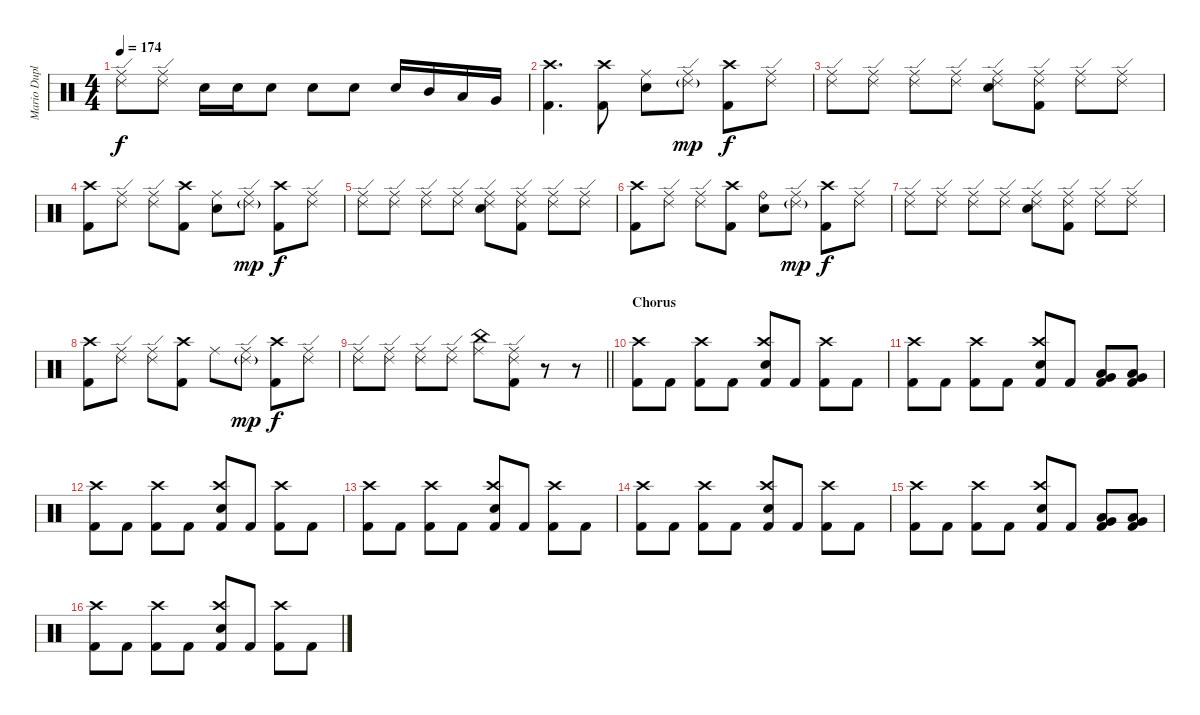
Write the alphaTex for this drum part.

\track ("Mario Duplantier - DRUMS" "Mario Dupl") {instrument percussion}
\staff {score}
\articulation defaults
\ts (4 4)
\tempo 174
\clef neutral
\ks c
("Ride (middle)" "Ride (edge) 2").8{dy f} ("Ride (middle)" "Ride (edge) 2").8 "Electric Snare (hit)".16 "Electric Snare (hit)".16 "Electric Snare (hit)".8 "Electric Snare (hit)".8 "Electric Snare (hit)".8 "Electric Snare (hit)".16 "Mid Tom (hit)".16 "Low Tom (hit)".16 "Very Low Tom (hit)".16 |
("Crash high (hit)" "Kick (hit) 2").4{d} ("Crash high (hit)" "Kick (hit) 2").8 ("Ride (middle)" "Electric Snare (hit)").8 ("Ride (middle)" "Ride (edge) 2"{g}).8{dy mp} ("Crash high (hit)" "Kick (hit) 2").8{dy f} ("Ride (middle)" "Ride (edge) 2").8 |
("Ride (middle)" "Ride (edge) 2").8 ("Ride (middle)" "Ride (edge) 2").8 ("Ride (middle)" "Ride (edge) 2").8 ("Ride (middle)" "Ride (edge) 2").8 ("Ride (middle)" "Ride (edge) 2" "Electric Snare (hit)").8 ("Ride (middle)" "Ride (edge) 2" "Kick (hit) 2").8 ("Ride (middle)" "Ride (edge) 2").8 ("Ride (middle)" "Ride (edge) 2").8 |
("Crash high (hit)" "Kick (hit) 2").8 ("Ride (middle)" "Ride (edge) 2").8 ("Ride (middle)" "Ride (edge) 2").8 ("Crash high (hit)" "Kick (hit) 2").8 ("Ride (middle)" "Electric Snare (hit)").8 ("Ride (middle)" "Ride (edge) 2"{g}).8{dy mp} ("Crash high (hit)" "Kick (hit) 2").8{dy f} ("Ride (middle)" "Ride (edge) 2").8 |
("Ride (middle)" "Ride (edge) 2").8 ("Ride (middle)" "Ride (edge) 2").8 ("Ride (middle)" "Ride (edge) 2").8 ("Ride (middle)" "Ride (edge) 2").8 ("Ride (middle)" "Ride (edge) 2" "Electric Snare (hit)").8 ("Ride (middle)" "Ride (edge) 2" "Kick (hit) 2").8 ("Ride (middle)" "Ride (edge) 2").8 ("Ride (middle)" "Ride (edge) 2").8 |
("Crash high (hit)" "Kick (hit) 2").8 ("Ride (middle)" "Ride (edge) 2").8 ("Ride (middle)" "Ride (edge) 2").8 ("Crash high (hit)" "Kick (hit) 2").8 ("Ride (bell)" "Electric Snare (hit)").8 ("Ride (middle)" "Ride (edge) 2"{g}).8{dy mp} ("Crash high (hit)" "Kick (hit) 2").8{dy f} ("Ride (middle)" "Ride (edge) 2").8 |
("Ride (middle)" "Ride (edge) 2").8 ("Ride (middle)" "Ride (edge) 2").8 ("Ride (middle)" "Ride (edge) 2").8 ("Ride (middle)" "Ride (edge) 2").8 ("Ride (middle)" "Ride (edge) 2" "Electric Snare (hit)").8 ("Ride (middle)" "Ride (edge) 2" "Kick (hit) 2").8 ("Ride (middle)" "Ride (edge) 2").8 ("Ride (middle)" "Ride (edge) 2").8 |
("Crash high (hit)" "Kick (hit) 2").8 ("Ride (middle)" "Ride (edge) 2").8 ("Ride (middle)" "Ride (edge) 2").8 ("Crash high (hit)" "Kick (hit) 2").8 "Ride (middle)".8 ("Ride (middle)" "Ride (edge) 2"{g}).8{dy mp} ("Crash high (hit)" "Kick (hit) 2").8{dy f} ("Ride (middle)" "Ride (edge) 2").8 |
\barLineRight lightlight
("Ride (middle)" "Ride (edge) 2").8 ("Ride (middle)" "Ride (edge) 2").8 ("Ride (middle)" "Ride (edge) 2").8 ("Ride (middle)" "Ride (edge) 2").8 ("Ride (middle)" "China (hit)").8 ("Ride (middle)" "Ride (edge) 2" "Kick (hit) 2").8 r.8 r.8 |
\section ("" "Chorus")
("Crash high (hit)" "Kick (hit) 2").8 "Kick (hit) 2".8 ("Crash high (hit)" "Kick (hit) 2").8 "Kick (hit) 2".8 ("Crash high (hit)" "Electric Snare (hit)" "Kick (hit) 2").8 "Kick (hit) 2".8 ("Crash high (hit)" "Kick (hit) 2").8 "Kick (hit) 2".8 |
("Crash high (hit)" "Kick (hit) 2").8 "Kick (hit) 2".8 ("Crash high (hit)" "Kick (hit) 2").8 "Kick (hit) 2".8 ("Crash high (hit)" "Electric Snare (hit)" "Kick (hit) 2").8 "Kick (hit) 2".8 ("Low Tom (hit)" "Very Low Tom (hit)" "Kick (hit) 2").8 ("Low Floor Tom (hit)" "Very Low Tom (hit)" "Kick (hit) 2").8 |
("Crash high (hit)" "Kick (hit) 2").8 "Kick (hit) 2".8 ("Crash high (hit)" "Kick (hit) 2").8 "Kick (hit) 2".8 ("Crash high (hit)" "Electric Snare (hit)" "Kick (hit) 2").8 "Kick (hit) 2".8 ("Crash high (hit)" "Kick (hit) 2").8 "Kick (hit) 2".8 |
("Crash high (hit)" "Kick (hit) 2").8 "Kick (hit) 2".8 ("Crash high (hit)" "Kick (hit) 2").8 "Kick (hit) 2".8 ("Crash high (hit)" "Electric Snare (hit)" "Kick (hit) 2").8 "Kick (hit) 2".8 ("Crash high (hit)" "Kick (hit) 2").8 "Kick (hit) 2".8 |
("Crash high (hit)" "Kick (hit) 2").8 "Kick (hit) 2".8 ("Crash high (hit)" "Kick (hit) 2").8 "Kick (hit) 2".8 ("Crash high (hit)" "Electric Snare (hit)" "Kick (hit) 2").8 "Kick (hit) 2".8 ("Crash high (hit)" "Kick (hit) 2").8 "Kick (hit) 2".8 |
("Crash high (hit)" "Kick (hit) 2").8 "Kick (hit) 2".8 ("Crash high (hit)" "Kick (hit) 2").8 "Kick (hit) 2".8 ("Crash high (hit)" "Electric Snare (hit)" "Kick (hit) 2").8 "Kick (hit) 2".8 ("Low Tom (hit)" "Very Low Tom (hit)" "Kick (hit) 2").8 ("Low Floor Tom (hit)" "Very Low Tom (hit)" "Kick (hit) 2").8 |
("Crash high (hit)" "Kick (hit) 2").8 "Kick (hit) 2".8 ("Crash high (hit)" "Kick (hit) 2").8 "Kick (hit) 2".8 ("Crash high (hit)" "Electric Snare (hit)" "Kick (hit) 2").8 "Kick (hit) 2".8 ("Crash high (hit)" "Kick (hit) 2").8 "Kick (hit) 2".8
